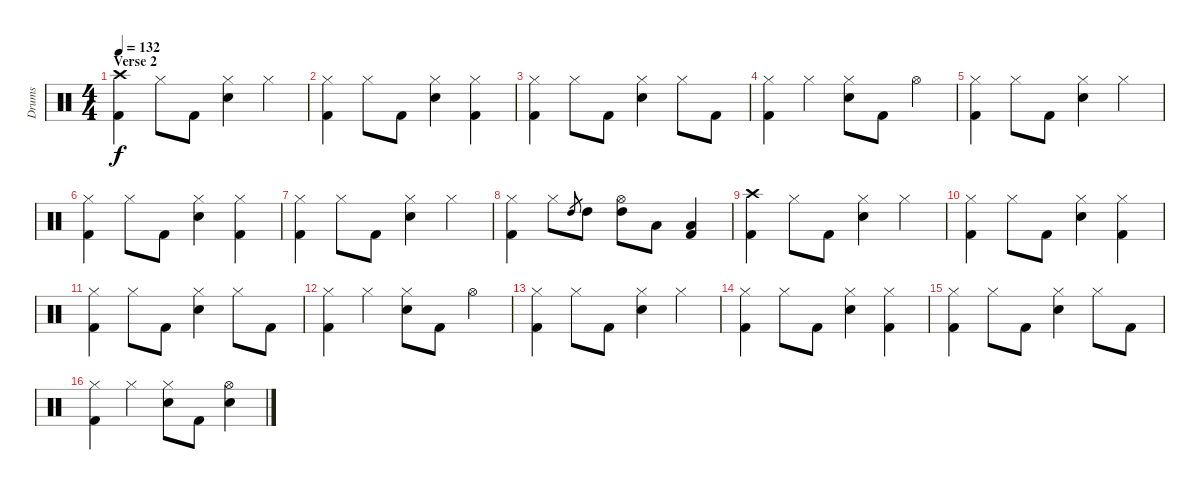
\track ("Drums" "Drums") {instrument percussion}
\staff {score}
\articulation defaults
\ts (4 4)
\section ("" "Verse 2")
\tempo 132
\clef neutral
\ks c
("Crash high (hit)" "Kick (hit) 2").4{dy f} "Hi-Hat (closed)".8 "Kick (hit) 2".8 ("Hi-Hat (closed)" "Snare (hit) 2").4 "Hi-Hat (closed)".4 |
("Hi-Hat (closed)" "Kick (hit) 2").4 "Hi-Hat (closed)".8 "Kick (hit) 2".8 ("Hi-Hat (closed)" "Snare (hit) 2").4 ("Hi-Hat (closed)" "Kick (hit) 2").4 |
("Hi-Hat (closed)" "Kick (hit) 2").4 "Hi-Hat (closed)".8 "Kick (hit) 2".8 ("Hi-Hat (closed)" "Snare (hit) 2").4 "Hi-Hat (closed)".8 "Kick (hit) 2".8 |
("Hi-Hat (closed)" "Kick (hit) 2").4 "Hi-Hat (closed)".4 ("Hi-Hat (closed)" "Snare (hit) 2").8 "Kick (hit) 2".8 "Hi-Hat (open)".4 |
("Hi-Hat (closed)" "Kick (hit) 2").4 "Hi-Hat (closed)".8 "Kick (hit) 2".8 ("Hi-Hat (closed)" "Snare (hit) 2").4 "Hi-Hat (closed)".4 |
("Hi-Hat (closed)" "Kick (hit) 2").4 "Hi-Hat (closed)".8 "Kick (hit) 2".8 ("Hi-Hat (closed)" "Snare (hit) 2").4 ("Hi-Hat (closed)" "Kick (hit) 2").4 |
("Hi-Hat (closed)" "Kick (hit) 2").4 "Hi-Hat (closed)".8 "Kick (hit) 2".8 ("Hi-Hat (closed)" "Snare (hit) 2").4 "Hi-Hat (closed)".4 |
("Hi-Hat (closed)" "Kick (hit) 2").4 "Hi-Hat (closed)".8 "High Tom (hit)".8{gr} "High Tom (hit)".8 ("Hi-Hat (open)" "High Tom (hit)").8 "Low Tom (hit)".8 ("Low Tom (hit)" "Kick (hit) 2").4 |
("Crash high (hit)" "Kick (hit) 2").4 "Hi-Hat (closed)".8 "Kick (hit) 2".8 ("Hi-Hat (closed)" "Snare (hit) 2").4 "Hi-Hat (closed)".4 |
("Hi-Hat (closed)" "Kick (hit) 2").4 "Hi-Hat (closed)".8 "Kick (hit) 2".8 ("Hi-Hat (closed)" "Snare (hit) 2").4 ("Hi-Hat (closed)" "Kick (hit) 2").4 |
("Hi-Hat (closed)" "Kick (hit) 2").4 "Hi-Hat (closed)".8 "Kick (hit) 2".8 ("Hi-Hat (closed)" "Snare (hit) 2").4 "Hi-Hat (closed)".8 "Kick (hit) 2".8 |
("Hi-Hat (closed)" "Kick (hit) 2").4 "Hi-Hat (closed)".4 ("Hi-Hat (closed)" "Snare (hit) 2").8 "Kick (hit) 2".8 "Hi-Hat (open)".4 |
("Hi-Hat (closed)" "Kick (hit) 2").4 "Hi-Hat (closed)".8 "Kick (hit) 2".8 ("Hi-Hat (closed)" "Snare (hit) 2").4 "Hi-Hat (closed)".4 |
("Hi-Hat (closed)" "Kick (hit) 2").4 "Hi-Hat (closed)".8 "Kick (hit) 2".8 ("Hi-Hat (closed)" "Snare (hit) 2").4 ("Hi-Hat (closed)" "Kick (hit) 2").4 |
("Hi-Hat (closed)" "Kick (hit) 2").4 "Hi-Hat (closed)".8 "Kick (hit) 2".8 ("Hi-Hat (closed)" "Snare (hit) 2").4 "Hi-Hat (closed)".8 "Kick (hit) 2".8 |
("Hi-Hat (closed)" "Kick (hit) 2").4 "Hi-Hat (closed)".4 ("Hi-Hat (closed)" "Snare (hit) 2").8 "Kick (hit) 2".8 ("Hi-Hat (open)" "Snare (hit) 2").4
